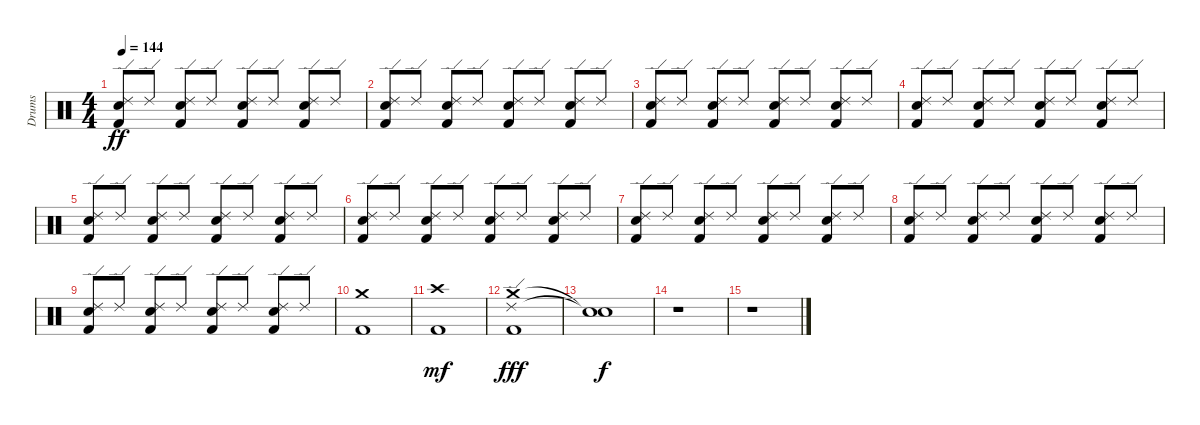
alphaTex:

\track ("Drums" "Drums") {instrument percussion}
\staff {score}
\articulation defaults
\ts (4 4)
\tempo 144
\clef neutral
\ks c
("Ride (edge) 2" "Electric Snare (hit)" "Kick (hit) 2").8{dy ff} "Ride (edge) 2".8 ("Ride (edge) 2" "Electric Snare (hit)" "Kick (hit) 2").8 "Ride (edge) 2".8 ("Ride (edge) 2" "Electric Snare (hit)" "Kick (hit) 2").8 "Ride (edge) 2".8 ("Ride (edge) 2" "Electric Snare (hit)" "Kick (hit) 2").8 "Ride (edge) 2".8 |
("Ride (edge) 2" "Electric Snare (hit)" "Kick (hit) 2").8 "Ride (edge) 2".8 ("Ride (edge) 2" "Electric Snare (hit)" "Kick (hit) 2").8 "Ride (edge) 2".8 ("Ride (edge) 2" "Electric Snare (hit)" "Kick (hit) 2").8 "Ride (edge) 2".8 ("Ride (edge) 2" "Electric Snare (hit)" "Kick (hit) 2").8 "Ride (edge) 2".8 |
("Ride (edge) 2" "Electric Snare (hit)" "Kick (hit) 2").8 "Ride (edge) 2".8 ("Ride (edge) 2" "Electric Snare (hit)" "Kick (hit) 2").8 "Ride (edge) 2".8 ("Ride (edge) 2" "Electric Snare (hit)" "Kick (hit) 2").8 "Ride (edge) 2".8 ("Ride (edge) 2" "Electric Snare (hit)" "Kick (hit) 2").8 "Ride (edge) 2".8 |
("Ride (edge) 2" "Electric Snare (hit)" "Kick (hit) 2").8 "Ride (edge) 2".8 ("Ride (edge) 2" "Electric Snare (hit)" "Kick (hit) 2").8 "Ride (edge) 2".8 ("Ride (edge) 2" "Electric Snare (hit)" "Kick (hit) 2").8 "Ride (edge) 2".8 ("Ride (edge) 2" "Electric Snare (hit)" "Kick (hit) 2").8 "Ride (edge) 2".8 |
("Ride (edge) 2" "Electric Snare (hit)" "Kick (hit) 2").8 "Ride (edge) 2".8 ("Ride (edge) 2" "Electric Snare (hit)" "Kick (hit) 2").8 "Ride (edge) 2".8 ("Ride (edge) 2" "Electric Snare (hit)" "Kick (hit) 2").8 "Ride (edge) 2".8 ("Ride (edge) 2" "Electric Snare (hit)" "Kick (hit) 2").8 "Ride (edge) 2".8 |
("Ride (edge) 2" "Electric Snare (hit)" "Kick (hit) 2").8 "Ride (edge) 2".8 ("Ride (edge) 2" "Electric Snare (hit)" "Kick (hit) 2").8 "Ride (edge) 2".8 ("Ride (edge) 2" "Electric Snare (hit)" "Kick (hit) 2").8 "Ride (edge) 2".8 ("Ride (edge) 2" "Electric Snare (hit)" "Kick (hit) 2").8 "Ride (edge) 2".8 |
("Ride (edge) 2" "Electric Snare (hit)" "Kick (hit) 2").8 "Ride (edge) 2".8 ("Ride (edge) 2" "Electric Snare (hit)" "Kick (hit) 2").8 "Ride (edge) 2".8 ("Ride (edge) 2" "Electric Snare (hit)" "Kick (hit) 2").8 "Ride (edge) 2".8 ("Ride (edge) 2" "Electric Snare (hit)" "Kick (hit) 2").8 "Ride (edge) 2".8 |
("Ride (edge) 2" "Electric Snare (hit)" "Kick (hit) 2").8 "Ride (edge) 2".8 ("Ride (edge) 2" "Electric Snare (hit)" "Kick (hit) 2").8 "Ride (edge) 2".8 ("Ride (edge) 2" "Electric Snare (hit)" "Kick (hit) 2").8 "Ride (edge) 2".8 ("Ride (edge) 2" "Electric Snare (hit)" "Kick (hit) 2").8 "Ride (edge) 2".8 |
("Ride (edge) 2" "Electric Snare (hit)" "Kick (hit) 2").8 "Ride (edge) 2".8 ("Ride (edge) 2" "Electric Snare (hit)" "Kick (hit) 2").8 "Ride (edge) 2".8 ("Ride (edge) 2" "Electric Snare (hit)" "Kick (hit) 2").8 "Ride (edge) 2".8 ("Ride (edge) 2" "Electric Snare (hit)" "Kick (hit) 2").8 "Ride (edge) 2".8 |
("Crash medium (hit)" "Kick (hit) 2").1 |
("Crash high (hit)" "Kick (hit) 2").1{dy mf} |
("Crash medium (hit)" "Ride (edge) 2" "Kick (hit) 2").1{dy fff} |
("Snare (hit)"{t} "Snare (hit)"{t}).1{dy f} |
r.1 |
r.1
